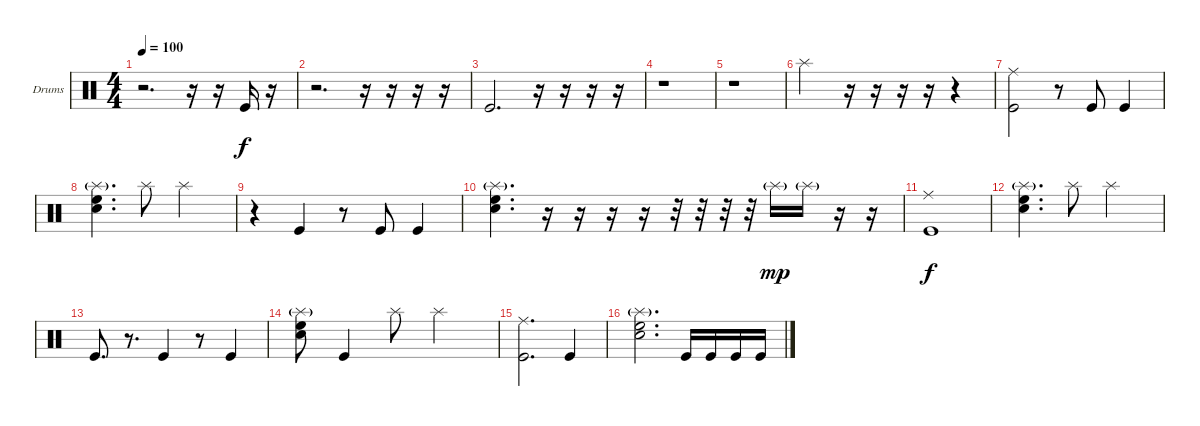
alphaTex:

\bracketExtendMode groupsimilarinstruments
\firstSystemTrackNameOrientation horizontal
\otherSystemsTrackNameOrientation horizontal
\track ("Drumkit" "Drums") {instrument percussion}
\staff {score}
\articulation defaults
\ts (4 4)
\tempo 100
\clef neutral
\ks c
r.2{d dy f} r.16 r.16 "Kick (hit)".16 r.16 |
r.2{d} r.16 r.16 r.16 r.16 |
"Kick (hit)".2{d} r.16 r.16 r.16 r.16 |
r.1 |
r.1 |
"Splash (hit)".2 r.16 r.16 r.16 r.16 r.4 |
("Ride (middle)" "Kick (hit)").2 r.8 "Kick (hit)".8 "Kick (hit)".4 |
("Snare (hit) 2" "High Floor Tom (hit)" "Splash (hit)"{g}).4{d} "Splash (hit)".8 "Splash (hit)".2 |
r.4 "Kick (hit)".4 r.8 "Kick (hit)".8 "Kick (hit)".4 |
("Snare (hit) 2" "High Floor Tom (hit)" "Splash (hit)"{g}).4{d} r.16 r.16 r.16 r.16 r.32 r.32 r.32 r.32 "Splash (hit)"{g}.16{dy mp} "Splash (hit)"{g}.16 r.16 r.16 |
("Ride (middle)" "Kick (hit)").1{dy f} |
("Snare (hit) 2" "High Floor Tom (hit)" "Splash (hit)"{g}).4{d} "Splash (hit)".8 "Splash (hit)".2 |
"Kick (hit)".8{d} r.8{d} "Kick (hit)".4 r.8 "Kick (hit)".4 |
("Snare (hit) 2" "High Floor Tom (hit)" "Splash (hit)"{g}).8 "Kick (hit)".4 "Splash (hit)".8 "Splash (hit)".2 |
("Ride (middle)" "Kick (hit)").2{d} "Kick (hit)".4 |
("Snare (hit) 2" "High Floor Tom (hit)" "Splash (hit)"{g}).2{d} "Kick (hit)".16 "Kick (hit)".16 "Kick (hit)".16 "Kick (hit)".16
